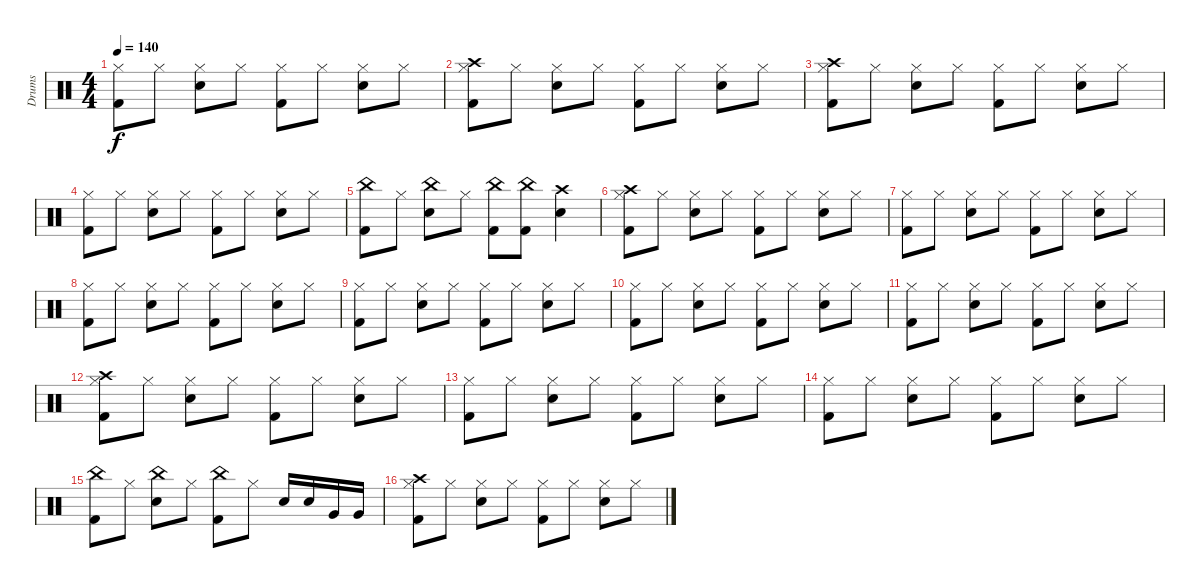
\track ("Drums" "Drums") {instrument percussion}
\staff {score}
\articulation defaults
\ts (4 4)
\tempo 140
\clef neutral
\ks c
("Hi-Hat (closed)" "Kick (hit) 2").8{dy f} "Hi-Hat (closed)".8 ("Hi-Hat (closed)" "Electric Snare (hit)").8 "Hi-Hat (closed)".8 ("Hi-Hat (closed)" "Kick (hit) 2").8 "Hi-Hat (closed)".8 ("Hi-Hat (closed)" "Electric Snare (hit)").8 "Hi-Hat (closed)".8 |
("Crash high (hit)" "Kick (hit) 2" "Hi-Hat (closed)").8 "Hi-Hat (closed)".8 ("Hi-Hat (closed)" "Electric Snare (hit)").8 "Hi-Hat (closed)".8 ("Hi-Hat (closed)" "Kick (hit) 2").8 "Hi-Hat (closed)".8 ("Hi-Hat (closed)" "Electric Snare (hit)").8 "Hi-Hat (closed)".8 |
("Crash high (hit)" "Kick (hit) 2" "Hi-Hat (closed)").8 "Hi-Hat (closed)".8 ("Hi-Hat (closed)" "Electric Snare (hit)").8 "Hi-Hat (closed)".8 ("Hi-Hat (closed)" "Kick (hit) 2").8 "Hi-Hat (closed)".8 ("Hi-Hat (closed)" "Electric Snare (hit)").8 "Hi-Hat (closed)".8 |
("Hi-Hat (closed)" "Kick (hit) 2").8 "Hi-Hat (closed)".8 ("Hi-Hat (closed)" "Electric Snare (hit)").8 "Hi-Hat (closed)".8 ("Hi-Hat (closed)" "Kick (hit) 2").8 "Hi-Hat (closed)".8 ("Hi-Hat (closed)" "Electric Snare (hit)").8 "Hi-Hat (closed)".8 |
("China (hit)" "Kick (hit) 2").8 "Hi-Hat (closed)".8 ("China (hit)" "Electric Snare (hit)").8 "Hi-Hat (closed)".8 ("China (hit)" "Kick (hit) 2").8 ("China (hit)" "Kick (hit) 2").8 ("Crash high (hit)" "Electric Snare (hit)").4 |
("Crash high (hit)" "Kick (hit) 2" "Hi-Hat (closed)").8 "Hi-Hat (closed)".8 ("Hi-Hat (closed)" "Electric Snare (hit)").8 "Hi-Hat (closed)".8 ("Hi-Hat (closed)" "Kick (hit) 2").8 "Hi-Hat (closed)".8 ("Hi-Hat (closed)" "Electric Snare (hit)").8 "Hi-Hat (closed)".8 |
("Hi-Hat (closed)" "Kick (hit) 2").8 "Hi-Hat (closed)".8 ("Hi-Hat (closed)" "Electric Snare (hit)").8 "Hi-Hat (closed)".8 ("Hi-Hat (closed)" "Kick (hit) 2").8 "Hi-Hat (closed)".8 ("Hi-Hat (closed)" "Electric Snare (hit)").8 "Hi-Hat (closed)".8 |
("Hi-Hat (closed)" "Kick (hit) 2").8 "Hi-Hat (closed)".8 ("Hi-Hat (closed)" "Electric Snare (hit)").8 "Hi-Hat (closed)".8 ("Hi-Hat (closed)" "Kick (hit) 2").8 "Hi-Hat (closed)".8 ("Hi-Hat (closed)" "Electric Snare (hit)").8 "Hi-Hat (closed)".8 |
("Hi-Hat (closed)" "Kick (hit) 2").8 "Hi-Hat (closed)".8 ("Hi-Hat (closed)" "Electric Snare (hit)").8 "Hi-Hat (closed)".8 ("Hi-Hat (closed)" "Kick (hit) 2").8 "Hi-Hat (closed)".8 ("Hi-Hat (closed)" "Electric Snare (hit)").8 "Hi-Hat (closed)".8 |
("Hi-Hat (closed)" "Kick (hit) 2").8 "Hi-Hat (closed)".8 ("Hi-Hat (closed)" "Electric Snare (hit)").8 "Hi-Hat (closed)".8 ("Hi-Hat (closed)" "Kick (hit) 2").8 "Hi-Hat (closed)".8 ("Hi-Hat (closed)" "Electric Snare (hit)").8 "Hi-Hat (closed)".8 |
("Hi-Hat (closed)" "Kick (hit) 2").8 "Hi-Hat (closed)".8 ("Hi-Hat (closed)" "Electric Snare (hit)").8 "Hi-Hat (closed)".8 ("Hi-Hat (closed)" "Kick (hit) 2").8 "Hi-Hat (closed)".8 ("Hi-Hat (closed)" "Electric Snare (hit)").8 "Hi-Hat (closed)".8 |
("Hi-Hat (closed)" "Kick (hit) 2" "Crash high (hit)").8 "Hi-Hat (closed)".8 ("Hi-Hat (closed)" "Electric Snare (hit)").8 "Hi-Hat (closed)".8 ("Hi-Hat (closed)" "Kick (hit) 2").8 "Hi-Hat (closed)".8 ("Hi-Hat (closed)" "Electric Snare (hit)").8 "Hi-Hat (closed)".8 |
("Hi-Hat (closed)" "Kick (hit) 2").8 "Hi-Hat (closed)".8 ("Hi-Hat (closed)" "Electric Snare (hit)").8 "Hi-Hat (closed)".8 ("Hi-Hat (closed)" "Kick (hit) 2").8 "Hi-Hat (closed)".8 ("Hi-Hat (closed)" "Electric Snare (hit)").8 "Hi-Hat (closed)".8 |
("Hi-Hat (closed)" "Kick (hit) 2").8 "Hi-Hat (closed)".8 ("Hi-Hat (closed)" "Electric Snare (hit)").8 "Hi-Hat (closed)".8 ("Hi-Hat (closed)" "Kick (hit) 2").8 "Hi-Hat (closed)".8 ("Hi-Hat (closed)" "Electric Snare (hit)").8 "Hi-Hat (closed)".8 |
("China (hit)" "Kick (hit) 2").8 "Hi-Hat (closed)".8 ("China (hit)" "Electric Snare (hit)").8 "Hi-Hat (closed)".8 ("China (hit)" "Kick (hit) 2").8 "Hi-Hat (closed)".8 "Electric Snare (hit)".16 "Electric Snare (hit)".16 "Very Low Tom (hit)".16 "Very Low Tom (hit)".16 |
("Hi-Hat (closed)" "Kick (hit) 2" "Crash high (hit)").8 "Hi-Hat (closed)".8 ("Hi-Hat (closed)" "Electric Snare (hit)").8 "Hi-Hat (closed)".8 ("Hi-Hat (closed)" "Kick (hit) 2").8 "Hi-Hat (closed)".8 ("Hi-Hat (closed)" "Electric Snare (hit)").8 "Hi-Hat (closed)".8
